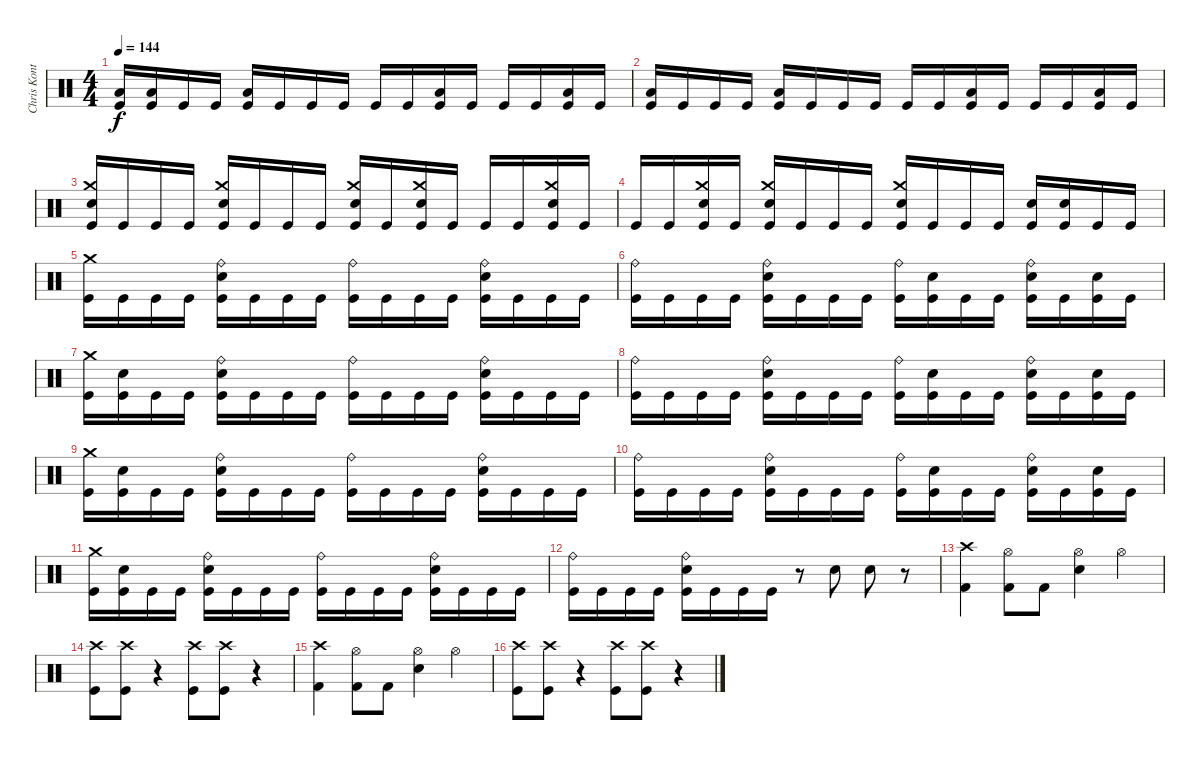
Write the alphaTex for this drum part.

\track ("Chris Kontos" "Chris Kont") {instrument percussion}
\staff {score}
\articulation defaults
\ts (4 4)
\tempo 144
\clef neutral
\ks c
("Low Floor Tom (hit)" "Kick (hit)").16{dy f} ("Low Floor Tom (hit)" "Kick (hit)").16 "Kick (hit)".16 "Kick (hit)".16 ("Low Floor Tom (hit)" "Kick (hit)").16 "Kick (hit)".16 "Kick (hit)".16 "Kick (hit)".16 "Kick (hit)".16 "Kick (hit)".16 ("Low Floor Tom (hit)" "Kick (hit)").16 "Kick (hit)".16 "Kick (hit)".16 "Kick (hit)".16 ("Low Floor Tom (hit)" "Kick (hit)").16 "Kick (hit)".16 |
("Low Floor Tom (hit)" "Kick (hit)").16 "Kick (hit)".16 "Kick (hit)".16 "Kick (hit)".16 ("Low Floor Tom (hit)" "Kick (hit)").16 "Kick (hit)".16 "Kick (hit)".16 "Kick (hit)".16 "Kick (hit)".16 "Kick (hit)".16 ("Low Floor Tom (hit)" "Kick (hit)").16 "Kick (hit)".16 "Kick (hit)".16 "Kick (hit)".16 ("Low Floor Tom (hit)" "Kick (hit)").16 "Kick (hit)".16 |
("Crash medium (hit)" "Electric Snare (hit)" "Kick (hit)").16 "Kick (hit)".16 "Kick (hit)".16 "Kick (hit)".16 ("Crash medium (hit)" "Electric Snare (hit)" "Kick (hit)").16 "Kick (hit)".16 "Kick (hit)".16 "Kick (hit)".16 ("Crash medium (hit)" "Electric Snare (hit)" "Kick (hit)").16 "Kick (hit)".16 ("Crash medium (hit)" "Electric Snare (hit)" "Kick (hit)").16 "Kick (hit)".16 "Kick (hit)".16 "Kick (hit)".16 ("Crash medium (hit)" "Electric Snare (hit)" "Kick (hit)").16 "Kick (hit)".16 |
"Kick (hit)".16 "Kick (hit)".16 ("Crash medium (hit)" "Electric Snare (hit)" "Kick (hit)").16 "Kick (hit)".16 ("Crash medium (hit)" "Electric Snare (hit)" "Kick (hit)").16 "Kick (hit)".16 "Kick (hit)".16 "Kick (hit)".16 ("Crash medium (hit)" "Electric Snare (hit)" "Kick (hit)").16 "Kick (hit)".16 "Kick (hit)".16 "Kick (hit)".16 ("Electric Snare (hit)" "Kick (hit)").16 ("Electric Snare (hit)" "Kick (hit)").16 "Kick (hit)".16 "Kick (hit)".16 |
("Crash medium (hit)" "Kick (hit)").16 "Kick (hit)".16 "Kick (hit)".16 "Kick (hit)".16 ("Ride (bell)" "Electric Snare (hit)" "Kick (hit)").16 "Kick (hit)".16 "Kick (hit)".16 "Kick (hit)".16 ("Ride (bell)" "Kick (hit)").16 "Kick (hit)".16 "Kick (hit)".16 "Kick (hit)".16 ("Ride (bell)" "Electric Snare (hit)" "Kick (hit)").16 "Kick (hit)".16 "Kick (hit)".16 "Kick (hit)".16 |
("Ride (bell)" "Kick (hit)").16 "Kick (hit)".16 "Kick (hit)".16 "Kick (hit)".16 ("Ride (bell)" "Electric Snare (hit)" "Kick (hit)").16 "Kick (hit)".16 "Kick (hit)".16 "Kick (hit)".16 ("Ride (bell)" "Kick (hit)").16 ("Electric Snare (hit)" "Kick (hit)").16 "Kick (hit)".16 "Kick (hit)".16 ("Ride (bell)" "Electric Snare (hit)" "Kick (hit)").16 "Kick (hit)".16 ("Electric Snare (hit)" "Kick (hit)").16 "Kick (hit)".16 |
("Crash medium (hit)" "Kick (hit)").16 ("Electric Snare (hit)" "Kick (hit)").16 "Kick (hit)".16 "Kick (hit)".16 ("Ride (bell)" "Electric Snare (hit)" "Kick (hit)").16 "Kick (hit)".16 "Kick (hit)".16 "Kick (hit)".16 ("Ride (bell)" "Kick (hit)").16 "Kick (hit)".16 "Kick (hit)".16 "Kick (hit)".16 ("Ride (bell)" "Electric Snare (hit)" "Kick (hit)").16 "Kick (hit)".16 "Kick (hit)".16 "Kick (hit)".16 |
("Ride (bell)" "Kick (hit)").16 "Kick (hit)".16 "Kick (hit)".16 "Kick (hit)".16 ("Ride (bell)" "Electric Snare (hit)" "Kick (hit)").16 "Kick (hit)".16 "Kick (hit)".16 "Kick (hit)".16 ("Ride (bell)" "Kick (hit)").16 ("Electric Snare (hit)" "Kick (hit)").16 "Kick (hit)".16 "Kick (hit)".16 ("Ride (bell)" "Electric Snare (hit)" "Kick (hit)").16 "Kick (hit)".16 ("Electric Snare (hit)" "Kick (hit)").16 "Kick (hit)".16 |
("Crash medium (hit)" "Kick (hit)").16 ("Electric Snare (hit)" "Kick (hit)").16 "Kick (hit)".16 "Kick (hit)".16 ("Ride (bell)" "Electric Snare (hit)" "Kick (hit)").16 "Kick (hit)".16 "Kick (hit)".16 "Kick (hit)".16 ("Ride (bell)" "Kick (hit)").16 "Kick (hit)".16 "Kick (hit)".16 "Kick (hit)".16 ("Ride (bell)" "Electric Snare (hit)" "Kick (hit)").16 "Kick (hit)".16 "Kick (hit)".16 "Kick (hit)".16 |
("Ride (bell)" "Kick (hit)").16 "Kick (hit)".16 "Kick (hit)".16 "Kick (hit)".16 ("Ride (bell)" "Electric Snare (hit)" "Kick (hit)").16 "Kick (hit)".16 "Kick (hit)".16 "Kick (hit)".16 ("Ride (bell)" "Kick (hit)").16 ("Electric Snare (hit)" "Kick (hit)").16 "Kick (hit)".16 "Kick (hit)".16 ("Ride (bell)" "Electric Snare (hit)" "Kick (hit)").16 "Kick (hit)".16 ("Electric Snare (hit)" "Kick (hit)").16 "Kick (hit)".16 |
("Crash medium (hit)" "Kick (hit)").16 ("Electric Snare (hit)" "Kick (hit)").16 "Kick (hit)".16 "Kick (hit)".16 ("Ride (bell)" "Electric Snare (hit)" "Kick (hit)").16 "Kick (hit)".16 "Kick (hit)".16 "Kick (hit)".16 ("Ride (bell)" "Kick (hit)").16 "Kick (hit)".16 "Kick (hit)".16 "Kick (hit)".16 ("Ride (bell)" "Electric Snare (hit)" "Kick (hit)").16 "Kick (hit)".16 "Kick (hit)".16 "Kick (hit)".16 |
("Ride (bell)" "Kick (hit)").16 "Kick (hit)".16 "Kick (hit)".16 "Kick (hit)".16 ("Ride (bell)" "Electric Snare (hit)" "Kick (hit)").16 "Kick (hit)".16 "Kick (hit)".16 "Kick (hit)".16 r.8 "Electric Snare (hit)".8 "Electric Snare (hit)".8 r.8 |
("Crash high (hit)" "Kick (hit) 2").4 ("Hi-Hat (open)" "Kick (hit) 2").8 "Kick (hit) 2".8 ("Hi-Hat (open)" "Electric Snare (hit)").4 "Hi-Hat (open)".4 |
("Crash high (hit)" "Kick (hit)").8 ("Crash high (hit)" "Kick (hit)").8 r.4 ("Crash high (hit)" "Kick (hit)").8 ("Crash high (hit)" "Kick (hit)").8 r.4 |
("Crash high (hit)" "Kick (hit) 2").4 ("Hi-Hat (open)" "Kick (hit) 2").8 "Kick (hit) 2".8 ("Hi-Hat (open)" "Electric Snare (hit)").4 "Hi-Hat (open)".4 |
("Crash high (hit)" "Kick (hit)").8 ("Crash high (hit)" "Kick (hit)").8 r.4 ("Crash high (hit)" "Kick (hit)").8 ("Crash high (hit)" "Kick (hit)").8 r.4
